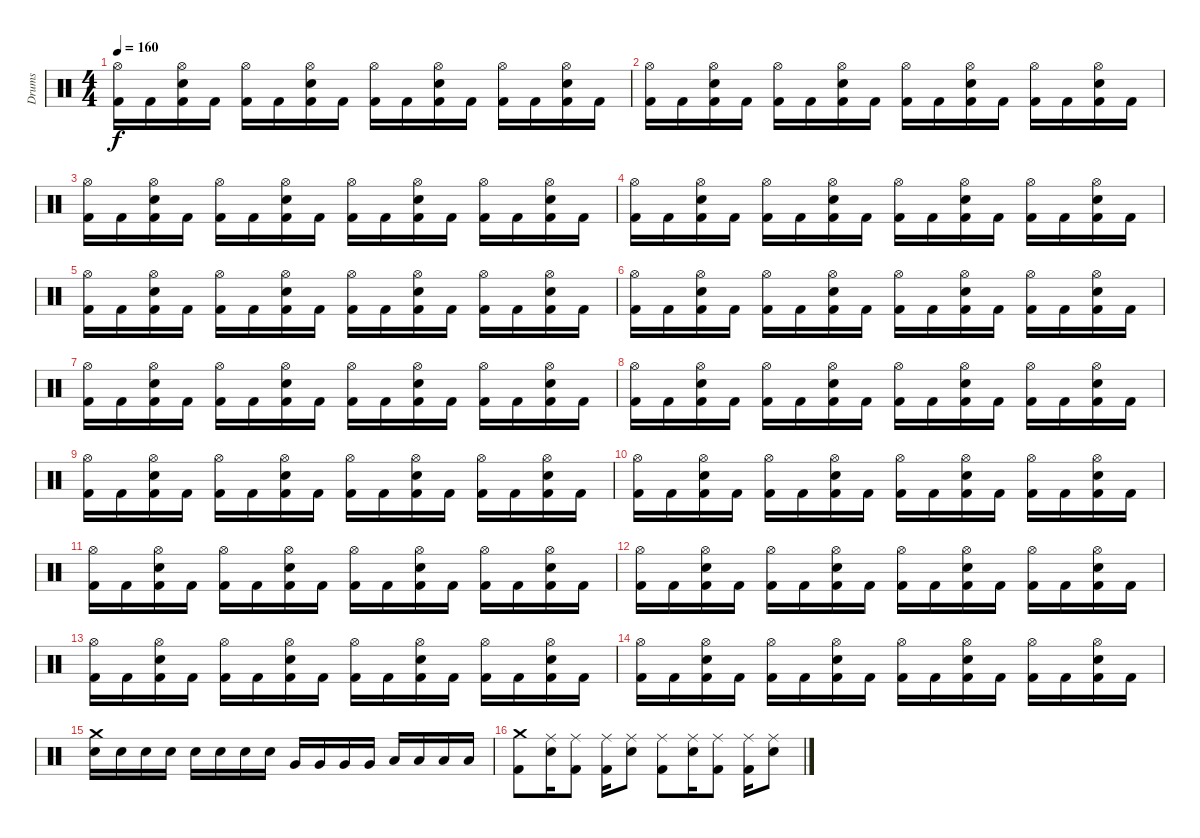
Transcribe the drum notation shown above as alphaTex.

\track ("Drums" "Drums") {instrument percussion}
\staff {score}
\articulation defaults
\ts (4 4)
\tempo 160
\clef neutral
\ks c
("Hi-Hat (open)" "Kick (hit) 2").16{dy f} "Kick (hit) 2".16 ("Snare (hit) 2" "Hi-Hat (open)" "Kick (hit) 2").16 "Kick (hit) 2".16 ("Hi-Hat (open)" "Kick (hit) 2").16 "Kick (hit) 2".16 ("Snare (hit) 2" "Hi-Hat (open)" "Kick (hit) 2").16 "Kick (hit) 2".16 ("Hi-Hat (open)" "Kick (hit) 2").16 "Kick (hit) 2".16 ("Snare (hit) 2" "Hi-Hat (open)" "Kick (hit) 2").16 "Kick (hit) 2".16 ("Hi-Hat (open)" "Kick (hit) 2").16 "Kick (hit) 2".16 ("Snare (hit) 2" "Hi-Hat (open)" "Kick (hit) 2").16 "Kick (hit) 2".16 |
("Hi-Hat (open)" "Kick (hit) 2").16 "Kick (hit) 2".16 ("Snare (hit) 2" "Hi-Hat (open)" "Kick (hit) 2").16 "Kick (hit) 2".16 ("Hi-Hat (open)" "Kick (hit) 2").16 "Kick (hit) 2".16 ("Snare (hit) 2" "Hi-Hat (open)" "Kick (hit) 2").16 "Kick (hit) 2".16 ("Hi-Hat (open)" "Kick (hit) 2").16 "Kick (hit) 2".16 ("Snare (hit) 2" "Hi-Hat (open)" "Kick (hit) 2").16 "Kick (hit) 2".16 ("Hi-Hat (open)" "Kick (hit) 2").16 "Kick (hit) 2".16 ("Snare (hit) 2" "Hi-Hat (open)" "Kick (hit) 2").16 "Kick (hit) 2".16 |
("Hi-Hat (open)" "Kick (hit) 2").16 "Kick (hit) 2".16 ("Snare (hit) 2" "Hi-Hat (open)" "Kick (hit) 2").16 "Kick (hit) 2".16 ("Hi-Hat (open)" "Kick (hit) 2").16 "Kick (hit) 2".16 ("Snare (hit) 2" "Hi-Hat (open)" "Kick (hit) 2").16 "Kick (hit) 2".16 ("Hi-Hat (open)" "Kick (hit) 2").16 "Kick (hit) 2".16 ("Snare (hit) 2" "Hi-Hat (open)" "Kick (hit) 2").16 "Kick (hit) 2".16 ("Hi-Hat (open)" "Kick (hit) 2").16 "Kick (hit) 2".16 ("Snare (hit) 2" "Hi-Hat (open)" "Kick (hit) 2").16 "Kick (hit) 2".16 |
("Hi-Hat (open)" "Kick (hit) 2").16 "Kick (hit) 2".16 ("Snare (hit) 2" "Hi-Hat (open)" "Kick (hit) 2").16 "Kick (hit) 2".16 ("Hi-Hat (open)" "Kick (hit) 2").16 "Kick (hit) 2".16 ("Snare (hit) 2" "Hi-Hat (open)" "Kick (hit) 2").16 "Kick (hit) 2".16 ("Hi-Hat (open)" "Kick (hit) 2").16 "Kick (hit) 2".16 ("Snare (hit) 2" "Hi-Hat (open)" "Kick (hit) 2").16 "Kick (hit) 2".16 ("Hi-Hat (open)" "Kick (hit) 2").16 "Kick (hit) 2".16 ("Snare (hit) 2" "Hi-Hat (open)" "Kick (hit) 2").16 "Kick (hit) 2".16 |
("Hi-Hat (open)" "Kick (hit) 2").16 "Kick (hit) 2".16 ("Snare (hit) 2" "Hi-Hat (open)" "Kick (hit) 2").16 "Kick (hit) 2".16 ("Hi-Hat (open)" "Kick (hit) 2").16 "Kick (hit) 2".16 ("Snare (hit) 2" "Hi-Hat (open)" "Kick (hit) 2").16 "Kick (hit) 2".16 ("Hi-Hat (open)" "Kick (hit) 2").16 "Kick (hit) 2".16 ("Snare (hit) 2" "Hi-Hat (open)" "Kick (hit) 2").16 "Kick (hit) 2".16 ("Hi-Hat (open)" "Kick (hit) 2").16 "Kick (hit) 2".16 ("Snare (hit) 2" "Hi-Hat (open)" "Kick (hit) 2").16 "Kick (hit) 2".16 |
("Hi-Hat (open)" "Kick (hit) 2").16 "Kick (hit) 2".16 ("Snare (hit) 2" "Hi-Hat (open)" "Kick (hit) 2").16 "Kick (hit) 2".16 ("Hi-Hat (open)" "Kick (hit) 2").16 "Kick (hit) 2".16 ("Snare (hit) 2" "Hi-Hat (open)" "Kick (hit) 2").16 "Kick (hit) 2".16 ("Hi-Hat (open)" "Kick (hit) 2").16 "Kick (hit) 2".16 ("Snare (hit) 2" "Hi-Hat (open)" "Kick (hit) 2").16 "Kick (hit) 2".16 ("Hi-Hat (open)" "Kick (hit) 2").16 "Kick (hit) 2".16 ("Snare (hit) 2" "Hi-Hat (open)" "Kick (hit) 2").16 "Kick (hit) 2".16 |
("Hi-Hat (open)" "Kick (hit) 2").16 "Kick (hit) 2".16 ("Snare (hit) 2" "Hi-Hat (open)" "Kick (hit) 2").16 "Kick (hit) 2".16 ("Hi-Hat (open)" "Kick (hit) 2").16 "Kick (hit) 2".16 ("Snare (hit) 2" "Hi-Hat (open)" "Kick (hit) 2").16 "Kick (hit) 2".16 ("Hi-Hat (open)" "Kick (hit) 2").16 "Kick (hit) 2".16 ("Snare (hit) 2" "Hi-Hat (open)" "Kick (hit) 2").16 "Kick (hit) 2".16 ("Hi-Hat (open)" "Kick (hit) 2").16 "Kick (hit) 2".16 ("Snare (hit) 2" "Hi-Hat (open)" "Kick (hit) 2").16 "Kick (hit) 2".16 |
("Hi-Hat (open)" "Kick (hit) 2").16 "Kick (hit) 2".16 ("Snare (hit) 2" "Hi-Hat (open)" "Kick (hit) 2").16 "Kick (hit) 2".16 ("Hi-Hat (open)" "Kick (hit) 2").16 "Kick (hit) 2".16 ("Snare (hit) 2" "Hi-Hat (open)" "Kick (hit) 2").16 "Kick (hit) 2".16 ("Hi-Hat (open)" "Kick (hit) 2").16 "Kick (hit) 2".16 ("Snare (hit) 2" "Hi-Hat (open)" "Kick (hit) 2").16 "Kick (hit) 2".16 ("Hi-Hat (open)" "Kick (hit) 2").16 "Kick (hit) 2".16 ("Snare (hit) 2" "Hi-Hat (open)" "Kick (hit) 2").16 "Kick (hit) 2".16 |
("Hi-Hat (open)" "Kick (hit) 2").16 "Kick (hit) 2".16 ("Snare (hit) 2" "Hi-Hat (open)" "Kick (hit) 2").16 "Kick (hit) 2".16 ("Hi-Hat (open)" "Kick (hit) 2").16 "Kick (hit) 2".16 ("Snare (hit) 2" "Hi-Hat (open)" "Kick (hit) 2").16 "Kick (hit) 2".16 ("Hi-Hat (open)" "Kick (hit) 2").16 "Kick (hit) 2".16 ("Snare (hit) 2" "Hi-Hat (open)" "Kick (hit) 2").16 "Kick (hit) 2".16 ("Hi-Hat (open)" "Kick (hit) 2").16 "Kick (hit) 2".16 ("Snare (hit) 2" "Hi-Hat (open)" "Kick (hit) 2").16 "Kick (hit) 2".16 |
("Hi-Hat (open)" "Kick (hit) 2").16 "Kick (hit) 2".16 ("Snare (hit) 2" "Hi-Hat (open)" "Kick (hit) 2").16 "Kick (hit) 2".16 ("Hi-Hat (open)" "Kick (hit) 2").16 "Kick (hit) 2".16 ("Snare (hit) 2" "Hi-Hat (open)" "Kick (hit) 2").16 "Kick (hit) 2".16 ("Hi-Hat (open)" "Kick (hit) 2").16 "Kick (hit) 2".16 ("Snare (hit) 2" "Hi-Hat (open)" "Kick (hit) 2").16 "Kick (hit) 2".16 ("Hi-Hat (open)" "Kick (hit) 2").16 "Kick (hit) 2".16 ("Snare (hit) 2" "Hi-Hat (open)" "Kick (hit) 2").16 "Kick (hit) 2".16 |
("Hi-Hat (open)" "Kick (hit) 2").16 "Kick (hit) 2".16 ("Snare (hit) 2" "Hi-Hat (open)" "Kick (hit) 2").16 "Kick (hit) 2".16 ("Hi-Hat (open)" "Kick (hit) 2").16 "Kick (hit) 2".16 ("Snare (hit) 2" "Hi-Hat (open)" "Kick (hit) 2").16 "Kick (hit) 2".16 ("Hi-Hat (open)" "Kick (hit) 2").16 "Kick (hit) 2".16 ("Snare (hit) 2" "Hi-Hat (open)" "Kick (hit) 2").16 "Kick (hit) 2".16 ("Hi-Hat (open)" "Kick (hit) 2").16 "Kick (hit) 2".16 ("Snare (hit) 2" "Hi-Hat (open)" "Kick (hit) 2").16 "Kick (hit) 2".16 |
("Hi-Hat (open)" "Kick (hit) 2").16 "Kick (hit) 2".16 ("Snare (hit) 2" "Hi-Hat (open)" "Kick (hit) 2").16 "Kick (hit) 2".16 ("Hi-Hat (open)" "Kick (hit) 2").16 "Kick (hit) 2".16 ("Snare (hit) 2" "Hi-Hat (open)" "Kick (hit) 2").16 "Kick (hit) 2".16 ("Hi-Hat (open)" "Kick (hit) 2").16 "Kick (hit) 2".16 ("Snare (hit) 2" "Hi-Hat (open)" "Kick (hit) 2").16 "Kick (hit) 2".16 ("Hi-Hat (open)" "Kick (hit) 2").16 "Kick (hit) 2".16 ("Snare (hit) 2" "Hi-Hat (open)" "Kick (hit) 2").16 "Kick (hit) 2".16 |
("Hi-Hat (open)" "Kick (hit) 2").16 "Kick (hit) 2".16 ("Snare (hit) 2" "Hi-Hat (open)" "Kick (hit) 2").16 "Kick (hit) 2".16 ("Hi-Hat (open)" "Kick (hit) 2").16 "Kick (hit) 2".16 ("Snare (hit) 2" "Hi-Hat (open)" "Kick (hit) 2").16 "Kick (hit) 2".16 ("Hi-Hat (open)" "Kick (hit) 2").16 "Kick (hit) 2".16 ("Snare (hit) 2" "Hi-Hat (open)" "Kick (hit) 2").16 "Kick (hit) 2".16 ("Hi-Hat (open)" "Kick (hit) 2").16 "Kick (hit) 2".16 ("Snare (hit) 2" "Hi-Hat (open)" "Kick (hit) 2").16 "Kick (hit) 2".16 |
("Hi-Hat (open)" "Kick (hit) 2").16 "Kick (hit) 2".16 ("Snare (hit) 2" "Hi-Hat (open)" "Kick (hit) 2").16 "Kick (hit) 2".16 ("Hi-Hat (open)" "Kick (hit) 2").16 "Kick (hit) 2".16 ("Snare (hit) 2" "Hi-Hat (open)" "Kick (hit) 2").16 "Kick (hit) 2".16 ("Hi-Hat (open)" "Kick (hit) 2").16 "Kick (hit) 2".16 ("Snare (hit) 2" "Hi-Hat (open)" "Kick (hit) 2").16 "Kick (hit) 2".16 ("Hi-Hat (open)" "Kick (hit) 2").16 "Kick (hit) 2".16 ("Snare (hit) 2" "Hi-Hat (open)" "Kick (hit) 2").16 "Kick (hit) 2".16 |
("Snare (hit) 2" "Crash medium (hit)").16 "Snare (hit) 2".16 "Snare (hit) 2".16 "Snare (hit) 2".16 "Snare (hit) 2".16 "Snare (hit) 2".16 "Snare (hit) 2".16 "Snare (hit) 2".16 "Very Low Tom (hit)".16 "Very Low Tom (hit)".16 "Very Low Tom (hit)".16 "Very Low Tom (hit)".16 "Low Floor Tom (hit)".16 "Low Floor Tom (hit)".16 "Low Floor Tom (hit)".16 "Low Floor Tom (hit)".16 |
("Crash medium (hit)" "Kick (hit) 2").8 ("Snare (hit) 2" "Ride (middle)").16 ("Ride (middle)" "Kick (hit) 2").8 ("Ride (middle)" "Kick (hit) 2").16 ("Snare (hit) 2" "Ride (middle)").8 ("Ride (middle)" "Kick (hit) 2").8 ("Snare (hit) 2" "Ride (middle)").16 ("Ride (middle)" "Kick (hit) 2").8 ("Ride (middle)" "Kick (hit) 2").16 ("Snare (hit) 2" "Ride (middle)").8
